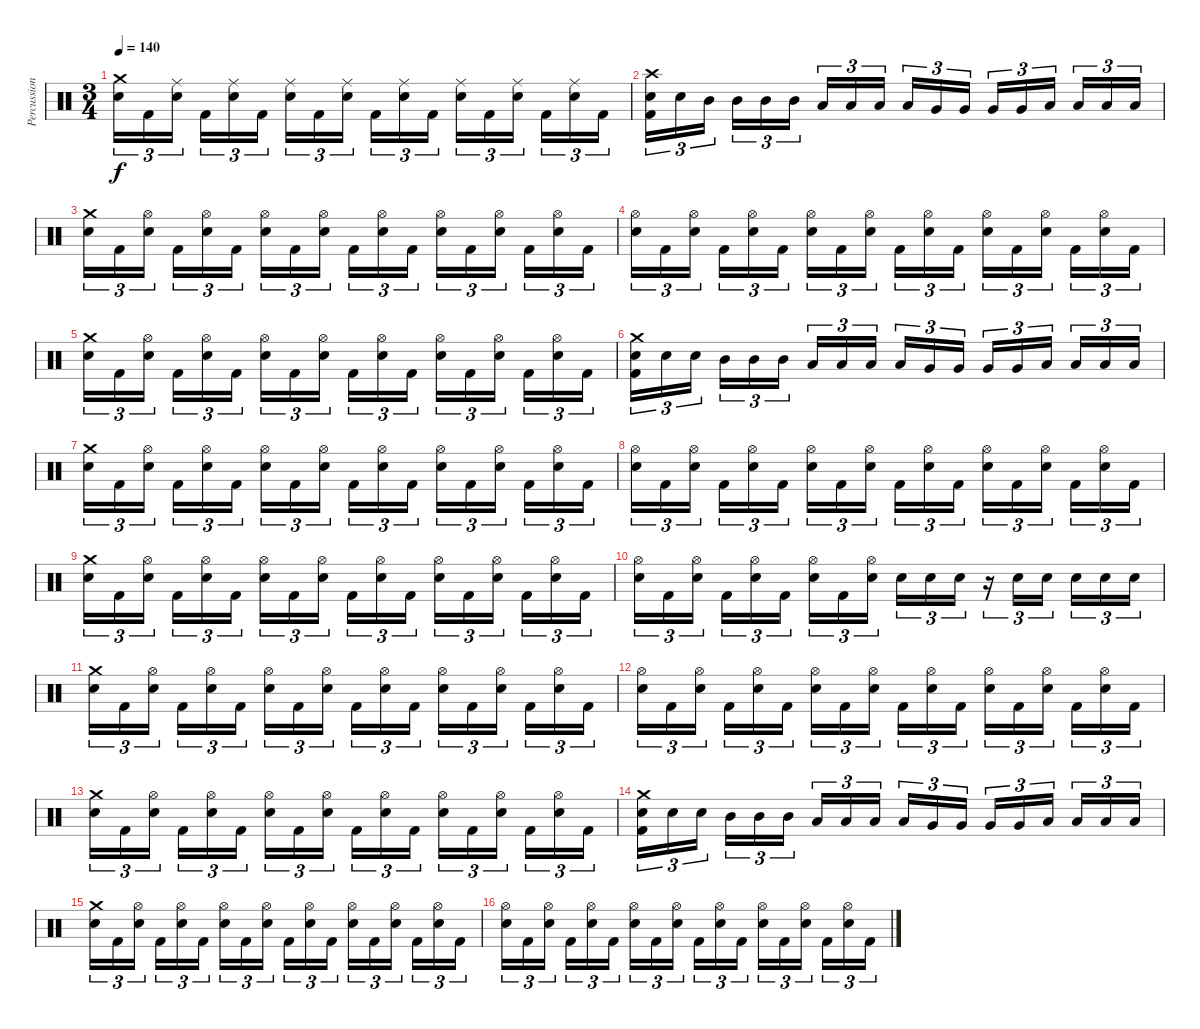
\track ("Percussion" "Percussion") {instrument percussion}
\staff {score}
\articulation defaults
\ts (3 4)
\tempo 140
\clef neutral
\ks c
("Crash medium (hit)" "Electric Snare (hit)").16{tu (3 2) dy f} "Kick (hit) 2".16{tu (3 2)} ("Ride (middle)" "Electric Snare (hit)").16{tu (3 2) beam splitsecondary} "Kick (hit) 2".16{tu (3 2)} ("Ride (middle)" "Electric Snare (hit)").16{tu (3 2)} "Kick (hit) 2".16{tu (3 2)} ("Ride (middle)" "Electric Snare (hit)").16{tu (3 2)} "Kick (hit) 2".16{tu (3 2)} ("Ride (middle)" "Electric Snare (hit)").16{tu (3 2) beam splitsecondary} "Kick (hit) 2".16{tu (3 2)} ("Ride (middle)" "Electric Snare (hit)").16{tu (3 2)} "Kick (hit) 2".16{tu (3 2)} ("Ride (middle)" "Electric Snare (hit)").16{tu (3 2)} "Kick (hit) 2".16{tu (3 2)} ("Ride (middle)" "Electric Snare (hit)").16{tu (3 2) beam splitsecondary} "Kick (hit) 2".16{tu (3 2)} ("Ride (middle)" "Electric Snare (hit)").16{tu (3 2)} "Kick (hit) 2".16{tu (3 2)} |
("Crash high (hit)" "Electric Snare (hit)" "Kick (hit) 2").16{tu (3 2)} "Electric Snare (hit)".16{tu (3 2)} "Mid Tom (hit)".16{tu (3 2) beam splitsecondary} "Mid Tom (hit)".16{tu (3 2)} "Mid Tom (hit)".16{tu (3 2)} "Mid Tom (hit)".16{tu (3 2)} "Low Tom (hit)".16{tu (3 2)} "Low Tom (hit)".16{tu (3 2)} "Low Tom (hit)".16{tu (3 2) beam splitsecondary} "Low Tom (hit)".16{tu (3 2)} "Very Low Tom (hit)".16{tu (3 2)} "Very Low Tom (hit)".16{tu (3 2)} "Very Low Tom (hit)".16{tu (3 2)} "Very Low Tom (hit)".16{tu (3 2)} "Low Floor Tom (hit)".16{tu (3 2) beam splitsecondary} "Low Floor Tom (hit)".16{tu (3 2)} "Low Floor Tom (hit)".16{tu (3 2)} "Low Floor Tom (hit)".16{tu (3 2)} |
("Crash medium (hit)" "Electric Snare (hit)").16{tu (3 2)} "Kick (hit) 2".16{tu (3 2)} ("Hi-Hat (open)" "Electric Snare (hit)").16{tu (3 2) beam splitsecondary} "Kick (hit) 2".16{tu (3 2)} ("Hi-Hat (open)" "Electric Snare (hit)").16{tu (3 2)} "Kick (hit) 2".16{tu (3 2)} ("Hi-Hat (open)" "Electric Snare (hit)").16{tu (3 2)} "Kick (hit) 2".16{tu (3 2)} ("Hi-Hat (open)" "Electric Snare (hit)").16{tu (3 2) beam splitsecondary} "Kick (hit) 2".16{tu (3 2)} ("Hi-Hat (open)" "Electric Snare (hit)").16{tu (3 2)} "Kick (hit) 2".16{tu (3 2)} ("Hi-Hat (open)" "Electric Snare (hit)").16{tu (3 2)} "Kick (hit) 2".16{tu (3 2)} ("Hi-Hat (open)" "Electric Snare (hit)").16{tu (3 2) beam splitsecondary} "Kick (hit) 2".16{tu (3 2)} ("Hi-Hat (open)" "Electric Snare (hit)").16{tu (3 2)} "Kick (hit) 2".16{tu (3 2)} |
("Hi-Hat (open)" "Electric Snare (hit)").16{tu (3 2)} "Kick (hit) 2".16{tu (3 2)} ("Hi-Hat (open)" "Electric Snare (hit)").16{tu (3 2) beam splitsecondary} "Kick (hit) 2".16{tu (3 2)} ("Hi-Hat (open)" "Electric Snare (hit)").16{tu (3 2)} "Kick (hit) 2".16{tu (3 2)} ("Hi-Hat (open)" "Electric Snare (hit)").16{tu (3 2)} "Kick (hit) 2".16{tu (3 2)} ("Hi-Hat (open)" "Electric Snare (hit)").16{tu (3 2) beam splitsecondary} "Kick (hit) 2".16{tu (3 2)} ("Hi-Hat (open)" "Electric Snare (hit)").16{tu (3 2)} "Kick (hit) 2".16{tu (3 2)} ("Hi-Hat (open)" "Electric Snare (hit)").16{tu (3 2)} "Kick (hit) 2".16{tu (3 2)} ("Hi-Hat (open)" "Electric Snare (hit)").16{tu (3 2) beam splitsecondary} "Kick (hit) 2".16{tu (3 2)} ("Hi-Hat (open)" "Electric Snare (hit)").16{tu (3 2)} "Kick (hit) 2".16{tu (3 2)} |
("Crash medium (hit)" "Electric Snare (hit)").16{tu (3 2)} "Kick (hit) 2".16{tu (3 2)} ("Hi-Hat (open)" "Electric Snare (hit)").16{tu (3 2) beam splitsecondary} "Kick (hit) 2".16{tu (3 2)} ("Hi-Hat (open)" "Electric Snare (hit)").16{tu (3 2)} "Kick (hit) 2".16{tu (3 2)} ("Hi-Hat (open)" "Electric Snare (hit)").16{tu (3 2)} "Kick (hit) 2".16{tu (3 2)} ("Hi-Hat (open)" "Electric Snare (hit)").16{tu (3 2) beam splitsecondary} "Kick (hit) 2".16{tu (3 2)} ("Hi-Hat (open)" "Electric Snare (hit)").16{tu (3 2)} "Kick (hit) 2".16{tu (3 2)} ("Hi-Hat (open)" "Electric Snare (hit)").16{tu (3 2)} "Kick (hit) 2".16{tu (3 2)} ("Hi-Hat (open)" "Electric Snare (hit)").16{tu (3 2) beam splitsecondary} "Kick (hit) 2".16{tu (3 2)} ("Hi-Hat (open)" "Electric Snare (hit)").16{tu (3 2)} "Kick (hit) 2".16{tu (3 2)} |
("Crash medium (hit)" "Electric Snare (hit)" "Kick (hit) 2").16{tu (3 2)} "Electric Snare (hit)".16{tu (3 2)} "Electric Snare (hit)".16{tu (3 2) beam splitsecondary} "Mid Tom (hit)".16{tu (3 2)} "Mid Tom (hit)".16{tu (3 2)} "Mid Tom (hit)".16{tu (3 2)} "Low Tom (hit)".16{tu (3 2)} "Low Tom (hit)".16{tu (3 2)} "Low Tom (hit)".16{tu (3 2) beam splitsecondary} "Low Tom (hit)".16{tu (3 2)} "Very Low Tom (hit)".16{tu (3 2)} "Very Low Tom (hit)".16{tu (3 2)} "Very Low Tom (hit)".16{tu (3 2)} "Very Low Tom (hit)".16{tu (3 2)} "Low Floor Tom (hit)".16{tu (3 2) beam splitsecondary} "Low Floor Tom (hit)".16{tu (3 2)} "Low Floor Tom (hit)".16{tu (3 2)} "Low Floor Tom (hit)".16{tu (3 2)} |
("Crash medium (hit)" "Electric Snare (hit)").16{tu (3 2)} "Kick (hit) 2".16{tu (3 2)} ("Hi-Hat (open)" "Electric Snare (hit)").16{tu (3 2) beam splitsecondary} "Kick (hit) 2".16{tu (3 2)} ("Hi-Hat (open)" "Electric Snare (hit)").16{tu (3 2)} "Kick (hit) 2".16{tu (3 2)} ("Hi-Hat (open)" "Electric Snare (hit)").16{tu (3 2)} "Kick (hit) 2".16{tu (3 2)} ("Hi-Hat (open)" "Electric Snare (hit)").16{tu (3 2) beam splitsecondary} "Kick (hit) 2".16{tu (3 2)} ("Hi-Hat (open)" "Electric Snare (hit)").16{tu (3 2)} "Kick (hit) 2".16{tu (3 2)} ("Hi-Hat (open)" "Electric Snare (hit)").16{tu (3 2)} "Kick (hit) 2".16{tu (3 2)} ("Hi-Hat (open)" "Electric Snare (hit)").16{tu (3 2) beam splitsecondary} "Kick (hit) 2".16{tu (3 2)} ("Hi-Hat (open)" "Electric Snare (hit)").16{tu (3 2)} "Kick (hit) 2".16{tu (3 2)} |
("Hi-Hat (open)" "Electric Snare (hit)").16{tu (3 2)} "Kick (hit) 2".16{tu (3 2)} ("Hi-Hat (open)" "Electric Snare (hit)").16{tu (3 2) beam splitsecondary} "Kick (hit) 2".16{tu (3 2)} ("Hi-Hat (open)" "Electric Snare (hit)").16{tu (3 2)} "Kick (hit) 2".16{tu (3 2)} ("Hi-Hat (open)" "Electric Snare (hit)").16{tu (3 2)} "Kick (hit) 2".16{tu (3 2)} ("Hi-Hat (open)" "Electric Snare (hit)").16{tu (3 2) beam splitsecondary} "Kick (hit) 2".16{tu (3 2)} ("Hi-Hat (open)" "Electric Snare (hit)").16{tu (3 2)} "Kick (hit) 2".16{tu (3 2)} ("Hi-Hat (open)" "Electric Snare (hit)").16{tu (3 2)} "Kick (hit) 2".16{tu (3 2)} ("Hi-Hat (open)" "Electric Snare (hit)").16{tu (3 2) beam splitsecondary} "Kick (hit) 2".16{tu (3 2)} ("Hi-Hat (open)" "Electric Snare (hit)").16{tu (3 2)} "Kick (hit) 2".16{tu (3 2)} |
("Crash medium (hit)" "Electric Snare (hit)").16{tu (3 2)} "Kick (hit) 2".16{tu (3 2)} ("Hi-Hat (open)" "Electric Snare (hit)").16{tu (3 2) beam splitsecondary} "Kick (hit) 2".16{tu (3 2)} ("Hi-Hat (open)" "Electric Snare (hit)").16{tu (3 2)} "Kick (hit) 2".16{tu (3 2)} ("Hi-Hat (open)" "Electric Snare (hit)").16{tu (3 2)} "Kick (hit) 2".16{tu (3 2)} ("Hi-Hat (open)" "Electric Snare (hit)").16{tu (3 2) beam splitsecondary} "Kick (hit) 2".16{tu (3 2)} ("Hi-Hat (open)" "Electric Snare (hit)").16{tu (3 2)} "Kick (hit) 2".16{tu (3 2)} ("Hi-Hat (open)" "Electric Snare (hit)").16{tu (3 2)} "Kick (hit) 2".16{tu (3 2)} ("Hi-Hat (open)" "Electric Snare (hit)").16{tu (3 2) beam splitsecondary} "Kick (hit) 2".16{tu (3 2)} ("Hi-Hat (open)" "Electric Snare (hit)").16{tu (3 2)} "Kick (hit) 2".16{tu (3 2)} |
("Hi-Hat (open)" "Electric Snare (hit)").16{tu (3 2)} "Kick (hit) 2".16{tu (3 2)} ("Hi-Hat (open)" "Electric Snare (hit)").16{tu (3 2) beam splitsecondary} "Kick (hit) 2".16{tu (3 2)} ("Hi-Hat (open)" "Electric Snare (hit)").16{tu (3 2)} "Kick (hit) 2".16{tu (3 2)} ("Hi-Hat (open)" "Electric Snare (hit)").16{tu (3 2)} "Kick (hit) 2".16{tu (3 2)} ("Hi-Hat (open)" "Electric Snare (hit)").16{tu (3 2) beam splitsecondary} "Electric Snare (hit)".16{tu (3 2)} "Electric Snare (hit)".16{tu (3 2)} "Electric Snare (hit)".16{tu (3 2)} r.16{tu (3 2)} "Electric Snare (hit)".16{tu (3 2)} "Electric Snare (hit)".16{tu (3 2) beam splitsecondary} "Electric Snare (hit)".16{tu (3 2)} "Electric Snare (hit)".16{tu (3 2)} "Electric Snare (hit)".16{tu (3 2)} |
("Crash medium (hit)" "Electric Snare (hit)").16{tu (3 2)} "Kick (hit) 2".16{tu (3 2)} ("Hi-Hat (open)" "Electric Snare (hit)").16{tu (3 2) beam splitsecondary} "Kick (hit) 2".16{tu (3 2)} ("Hi-Hat (open)" "Electric Snare (hit)").16{tu (3 2)} "Kick (hit) 2".16{tu (3 2)} ("Hi-Hat (open)" "Electric Snare (hit)").16{tu (3 2)} "Kick (hit) 2".16{tu (3 2)} ("Hi-Hat (open)" "Electric Snare (hit)").16{tu (3 2) beam splitsecondary} "Kick (hit) 2".16{tu (3 2)} ("Hi-Hat (open)" "Electric Snare (hit)").16{tu (3 2)} "Kick (hit) 2".16{tu (3 2)} ("Hi-Hat (open)" "Electric Snare (hit)").16{tu (3 2)} "Kick (hit) 2".16{tu (3 2)} ("Hi-Hat (open)" "Electric Snare (hit)").16{tu (3 2) beam splitsecondary} "Kick (hit) 2".16{tu (3 2)} ("Hi-Hat (open)" "Electric Snare (hit)").16{tu (3 2)} "Kick (hit) 2".16{tu (3 2)} |
("Hi-Hat (open)" "Electric Snare (hit)").16{tu (3 2)} "Kick (hit) 2".16{tu (3 2)} ("Hi-Hat (open)" "Electric Snare (hit)").16{tu (3 2) beam splitsecondary} "Kick (hit) 2".16{tu (3 2)} ("Hi-Hat (open)" "Electric Snare (hit)").16{tu (3 2)} "Kick (hit) 2".16{tu (3 2)} ("Hi-Hat (open)" "Electric Snare (hit)").16{tu (3 2)} "Kick (hit) 2".16{tu (3 2)} ("Hi-Hat (open)" "Electric Snare (hit)").16{tu (3 2) beam splitsecondary} "Kick (hit) 2".16{tu (3 2)} ("Hi-Hat (open)" "Electric Snare (hit)").16{tu (3 2)} "Kick (hit) 2".16{tu (3 2)} ("Hi-Hat (open)" "Electric Snare (hit)").16{tu (3 2)} "Kick (hit) 2".16{tu (3 2)} ("Hi-Hat (open)" "Electric Snare (hit)").16{tu (3 2) beam splitsecondary} "Kick (hit) 2".16{tu (3 2)} ("Hi-Hat (open)" "Electric Snare (hit)").16{tu (3 2)} "Kick (hit) 2".16{tu (3 2)} |
("Crash medium (hit)" "Electric Snare (hit)").16{tu (3 2)} "Kick (hit) 2".16{tu (3 2)} ("Hi-Hat (open)" "Electric Snare (hit)").16{tu (3 2) beam splitsecondary} "Kick (hit) 2".16{tu (3 2)} ("Hi-Hat (open)" "Electric Snare (hit)").16{tu (3 2)} "Kick (hit) 2".16{tu (3 2)} ("Hi-Hat (open)" "Electric Snare (hit)").16{tu (3 2)} "Kick (hit) 2".16{tu (3 2)} ("Hi-Hat (open)" "Electric Snare (hit)").16{tu (3 2) beam splitsecondary} "Kick (hit) 2".16{tu (3 2)} ("Hi-Hat (open)" "Electric Snare (hit)").16{tu (3 2)} "Kick (hit) 2".16{tu (3 2)} ("Hi-Hat (open)" "Electric Snare (hit)").16{tu (3 2)} "Kick (hit) 2".16{tu (3 2)} ("Hi-Hat (open)" "Electric Snare (hit)").16{tu (3 2) beam splitsecondary} "Kick (hit) 2".16{tu (3 2)} ("Hi-Hat (open)" "Electric Snare (hit)").16{tu (3 2)} "Kick (hit) 2".16{tu (3 2)} |
("Crash medium (hit)" "Electric Snare (hit)" "Kick (hit) 2").16{tu (3 2)} "Electric Snare (hit)".16{tu (3 2)} "Electric Snare (hit)".16{tu (3 2) beam splitsecondary} "Mid Tom (hit)".16{tu (3 2)} "Mid Tom (hit)".16{tu (3 2)} "Mid Tom (hit)".16{tu (3 2)} "Low Tom (hit)".16{tu (3 2)} "Low Tom (hit)".16{tu (3 2)} "Low Tom (hit)".16{tu (3 2) beam splitsecondary} "Low Tom (hit)".16{tu (3 2)} "Very Low Tom (hit)".16{tu (3 2)} "Very Low Tom (hit)".16{tu (3 2)} "Very Low Tom (hit)".16{tu (3 2)} "Very Low Tom (hit)".16{tu (3 2)} "Low Floor Tom (hit)".16{tu (3 2) beam splitsecondary} "Low Floor Tom (hit)".16{tu (3 2)} "Low Floor Tom (hit)".16{tu (3 2)} "Low Floor Tom (hit)".16{tu (3 2)} |
("Crash medium (hit)" "Electric Snare (hit)").16{tu (3 2)} "Kick (hit) 2".16{tu (3 2)} ("Hi-Hat (open)" "Electric Snare (hit)").16{tu (3 2) beam splitsecondary} "Kick (hit) 2".16{tu (3 2)} ("Hi-Hat (open)" "Electric Snare (hit)").16{tu (3 2)} "Kick (hit) 2".16{tu (3 2)} ("Hi-Hat (open)" "Electric Snare (hit)").16{tu (3 2)} "Kick (hit) 2".16{tu (3 2)} ("Hi-Hat (open)" "Electric Snare (hit)").16{tu (3 2) beam splitsecondary} "Kick (hit) 2".16{tu (3 2)} ("Hi-Hat (open)" "Electric Snare (hit)").16{tu (3 2)} "Kick (hit) 2".16{tu (3 2)} ("Hi-Hat (open)" "Electric Snare (hit)").16{tu (3 2)} "Kick (hit) 2".16{tu (3 2)} ("Hi-Hat (open)" "Electric Snare (hit)").16{tu (3 2) beam splitsecondary} "Kick (hit) 2".16{tu (3 2)} ("Hi-Hat (open)" "Electric Snare (hit)").16{tu (3 2)} "Kick (hit) 2".16{tu (3 2)} |
("Hi-Hat (open)" "Electric Snare (hit)").16{tu (3 2)} "Kick (hit) 2".16{tu (3 2)} ("Hi-Hat (open)" "Electric Snare (hit)").16{tu (3 2) beam splitsecondary} "Kick (hit) 2".16{tu (3 2)} ("Hi-Hat (open)" "Electric Snare (hit)").16{tu (3 2)} "Kick (hit) 2".16{tu (3 2)} ("Hi-Hat (open)" "Electric Snare (hit)").16{tu (3 2)} "Kick (hit) 2".16{tu (3 2)} ("Hi-Hat (open)" "Electric Snare (hit)").16{tu (3 2) beam splitsecondary} "Kick (hit) 2".16{tu (3 2)} ("Hi-Hat (open)" "Electric Snare (hit)").16{tu (3 2)} "Kick (hit) 2".16{tu (3 2)} ("Hi-Hat (open)" "Electric Snare (hit)").16{tu (3 2)} "Kick (hit) 2".16{tu (3 2)} ("Hi-Hat (open)" "Electric Snare (hit)").16{tu (3 2) beam splitsecondary} "Kick (hit) 2".16{tu (3 2)} ("Hi-Hat (open)" "Electric Snare (hit)").16{tu (3 2)} "Kick (hit) 2".16{tu (3 2)}
